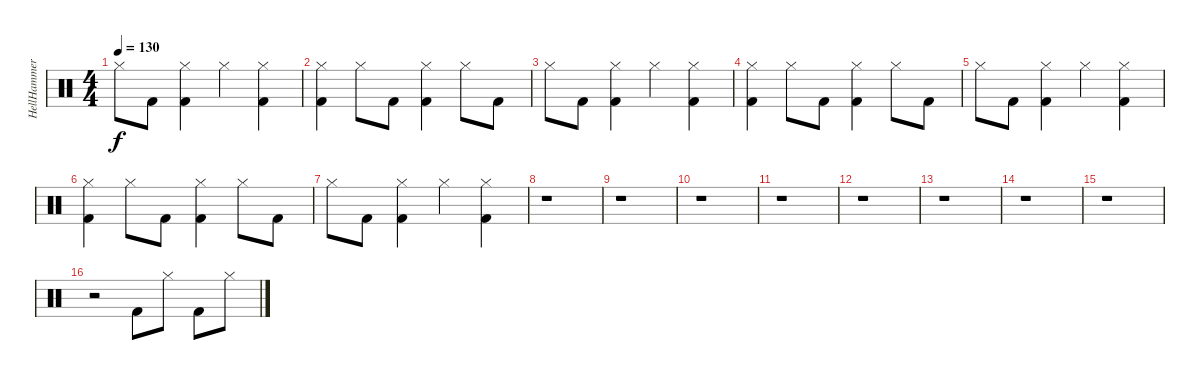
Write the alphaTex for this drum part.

\track ("HellHammer - Drums" "HellHammer") {instrument percussion}
\staff {score}
\articulation defaults
\ts (4 4)
\tempo 130
\clef neutral
\ks c "Hi-Hat (closed)".8{dy f} "Kick (hit) 2".8
("Hi-Hat (closed)" "Kick (hit) 2").4 "Hi-Hat (closed)".4 ("Hi-Hat (closed)" "Kick (hit) 2").4 |
("Hi-Hat (closed)" "Kick (hit) 2").4 "Hi-Hat (closed)".8 "Kick (hit) 2".8 ("Hi-Hat (closed)" "Kick (hit) 2").4 "Hi-Hat (closed)".8 "Kick (hit) 2".8 |
"Hi-Hat (closed)".8 "Kick (hit) 2".8 ("Hi-Hat (closed)" "Kick (hit) 2").4 "Hi-Hat (closed)".4 ("Hi-Hat (closed)" "Kick (hit) 2").4 |
("Hi-Hat (closed)" "Kick (hit) 2").4 "Hi-Hat (closed)".8 "Kick (hit) 2".8 ("Hi-Hat (closed)" "Kick (hit) 2").4 "Hi-Hat (closed)".8 "Kick (hit) 2".8 |
"Hi-Hat (closed)".8 "Kick (hit) 2".8 ("Hi-Hat (closed)" "Kick (hit) 2").4 "Hi-Hat (closed)".4 ("Hi-Hat (closed)" "Kick (hit) 2").4 |
("Hi-Hat (closed)" "Kick (hit) 2").4 "Hi-Hat (closed)".8 "Kick (hit) 2".8 ("Hi-Hat (closed)" "Kick (hit) 2").4 "Hi-Hat (closed)".8 "Kick (hit) 2".8 |
"Hi-Hat (closed)".8 "Kick (hit) 2".8 ("Hi-Hat (closed)" "Kick (hit) 2").4 "Hi-Hat (closed)".4 ("Hi-Hat (closed)" "Kick (hit) 2").4 |
r.1 |
r.1 |
r.1 |
r.1 |
r.1 |
r.1 |
r.1 |
r.1 |
r.2 "Kick (hit) 2".8 "Hi-Hat (closed)".8 "Kick (hit) 2".8 "Hi-Hat (closed)".8
